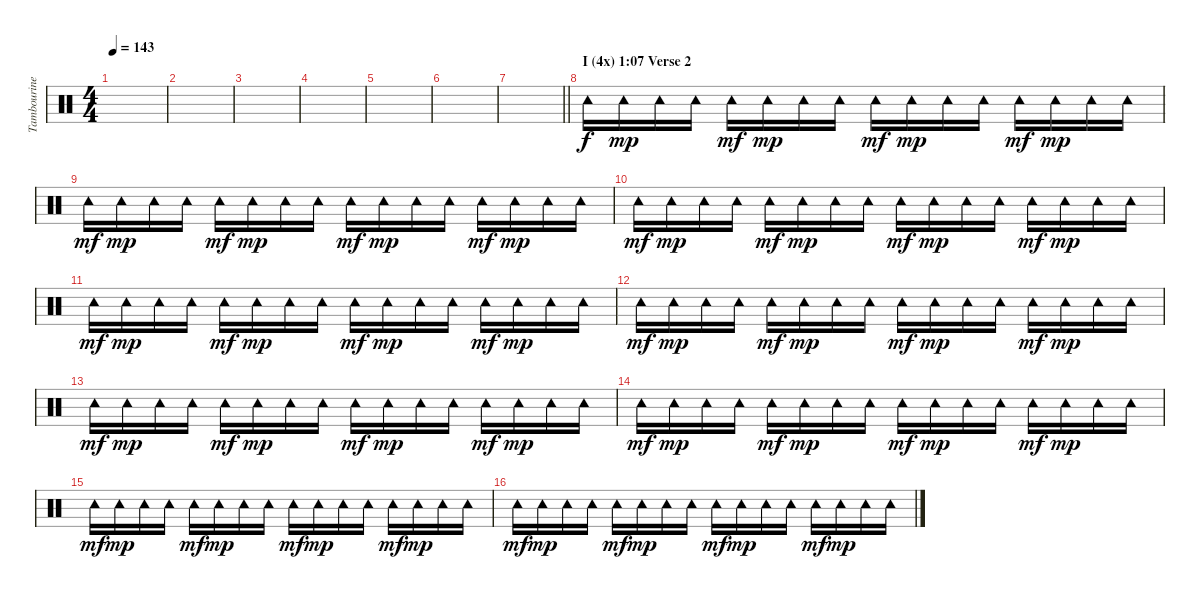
\track ("Tambourine ( I Verse + IV Solo)" "Tambourine") {instrument percussion}
\staff {score}
\articulation defaults
\ts (4 4)
\tempo 143
\clef neutral
\ks c
|
|
|
|
|
|
\barLineRight lightlight
|
\section ("" "I (4x) 1:07 Verse 2")
"Tambourine (hit)".16 "Tambourine (hit)".16{dy mp} "Tambourine (hit)".16 "Tambourine (hit)".16 "Tambourine (hit)".16{dy mf} "Tambourine (hit)".16{dy mp} "Tambourine (hit)".16 "Tambourine (hit)".16 "Tambourine (hit)".16{dy mf} "Tambourine (hit)".16{dy mp} "Tambourine (hit)".16 "Tambourine (hit)".16 "Tambourine (hit)".16{dy mf} "Tambourine (hit)".16{dy mp} "Tambourine (hit)".16 "Tambourine (hit)".16 |
"Tambourine (hit)".16{dy mf} "Tambourine (hit)".16{dy mp} "Tambourine (hit)".16 "Tambourine (hit)".16 "Tambourine (hit)".16{dy mf} "Tambourine (hit)".16{dy mp} "Tambourine (hit)".16 "Tambourine (hit)".16 "Tambourine (hit)".16{dy mf} "Tambourine (hit)".16{dy mp} "Tambourine (hit)".16 "Tambourine (hit)".16 "Tambourine (hit)".16{dy mf} "Tambourine (hit)".16{dy mp} "Tambourine (hit)".16 "Tambourine (hit)".16 |
"Tambourine (hit)".16{dy mf} "Tambourine (hit)".16{dy mp} "Tambourine (hit)".16 "Tambourine (hit)".16 "Tambourine (hit)".16{dy mf} "Tambourine (hit)".16{dy mp} "Tambourine (hit)".16 "Tambourine (hit)".16 "Tambourine (hit)".16{dy mf} "Tambourine (hit)".16{dy mp} "Tambourine (hit)".16 "Tambourine (hit)".16 "Tambourine (hit)".16{dy mf} "Tambourine (hit)".16{dy mp} "Tambourine (hit)".16 "Tambourine (hit)".16 |
"Tambourine (hit)".16{dy mf} "Tambourine (hit)".16{dy mp} "Tambourine (hit)".16 "Tambourine (hit)".16 "Tambourine (hit)".16{dy mf} "Tambourine (hit)".16{dy mp} "Tambourine (hit)".16 "Tambourine (hit)".16 "Tambourine (hit)".16{dy mf} "Tambourine (hit)".16{dy mp} "Tambourine (hit)".16 "Tambourine (hit)".16 "Tambourine (hit)".16{dy mf} "Tambourine (hit)".16{dy mp} "Tambourine (hit)".16 "Tambourine (hit)".16 |
"Tambourine (hit)".16{dy mf} "Tambourine (hit)".16{dy mp} "Tambourine (hit)".16 "Tambourine (hit)".16 "Tambourine (hit)".16{dy mf} "Tambourine (hit)".16{dy mp} "Tambourine (hit)".16 "Tambourine (hit)".16 "Tambourine (hit)".16{dy mf} "Tambourine (hit)".16{dy mp} "Tambourine (hit)".16 "Tambourine (hit)".16 "Tambourine (hit)".16{dy mf} "Tambourine (hit)".16{dy mp} "Tambourine (hit)".16 "Tambourine (hit)".16 |
"Tambourine (hit)".16{dy mf} "Tambourine (hit)".16{dy mp} "Tambourine (hit)".16 "Tambourine (hit)".16 "Tambourine (hit)".16{dy mf} "Tambourine (hit)".16{dy mp} "Tambourine (hit)".16 "Tambourine (hit)".16 "Tambourine (hit)".16{dy mf} "Tambourine (hit)".16{dy mp} "Tambourine (hit)".16 "Tambourine (hit)".16 "Tambourine (hit)".16{dy mf} "Tambourine (hit)".16{dy mp} "Tambourine (hit)".16 "Tambourine (hit)".16 |
"Tambourine (hit)".16{dy mf} "Tambourine (hit)".16{dy mp} "Tambourine (hit)".16 "Tambourine (hit)".16 "Tambourine (hit)".16{dy mf} "Tambourine (hit)".16{dy mp} "Tambourine (hit)".16 "Tambourine (hit)".16 "Tambourine (hit)".16{dy mf} "Tambourine (hit)".16{dy mp} "Tambourine (hit)".16 "Tambourine (hit)".16 "Tambourine (hit)".16{dy mf} "Tambourine (hit)".16{dy mp} "Tambourine (hit)".16 "Tambourine (hit)".16 |
"Tambourine (hit)".16{dy mf} "Tambourine (hit)".16{dy mp} "Tambourine (hit)".16 "Tambourine (hit)".16 "Tambourine (hit)".16{dy mf} "Tambourine (hit)".16{dy mp} "Tambourine (hit)".16 "Tambourine (hit)".16 "Tambourine (hit)".16{dy mf} "Tambourine (hit)".16{dy mp} "Tambourine (hit)".16 "Tambourine (hit)".16 "Tambourine (hit)".16{dy mf} "Tambourine (hit)".16{dy mp} "Tambourine (hit)".16 "Tambourine (hit)".16 |
"Tambourine (hit)".16{dy mf} "Tambourine (hit)".16{dy mp} "Tambourine (hit)".16 "Tambourine (hit)".16 "Tambourine (hit)".16{dy mf} "Tambourine (hit)".16{dy mp} "Tambourine (hit)".16 "Tambourine (hit)".16 "Tambourine (hit)".16{dy mf} "Tambourine (hit)".16{dy mp} "Tambourine (hit)".16 "Tambourine (hit)".16 "Tambourine (hit)".16{dy mf} "Tambourine (hit)".16{dy mp} "Tambourine (hit)".16 "Tambourine (hit)".16
